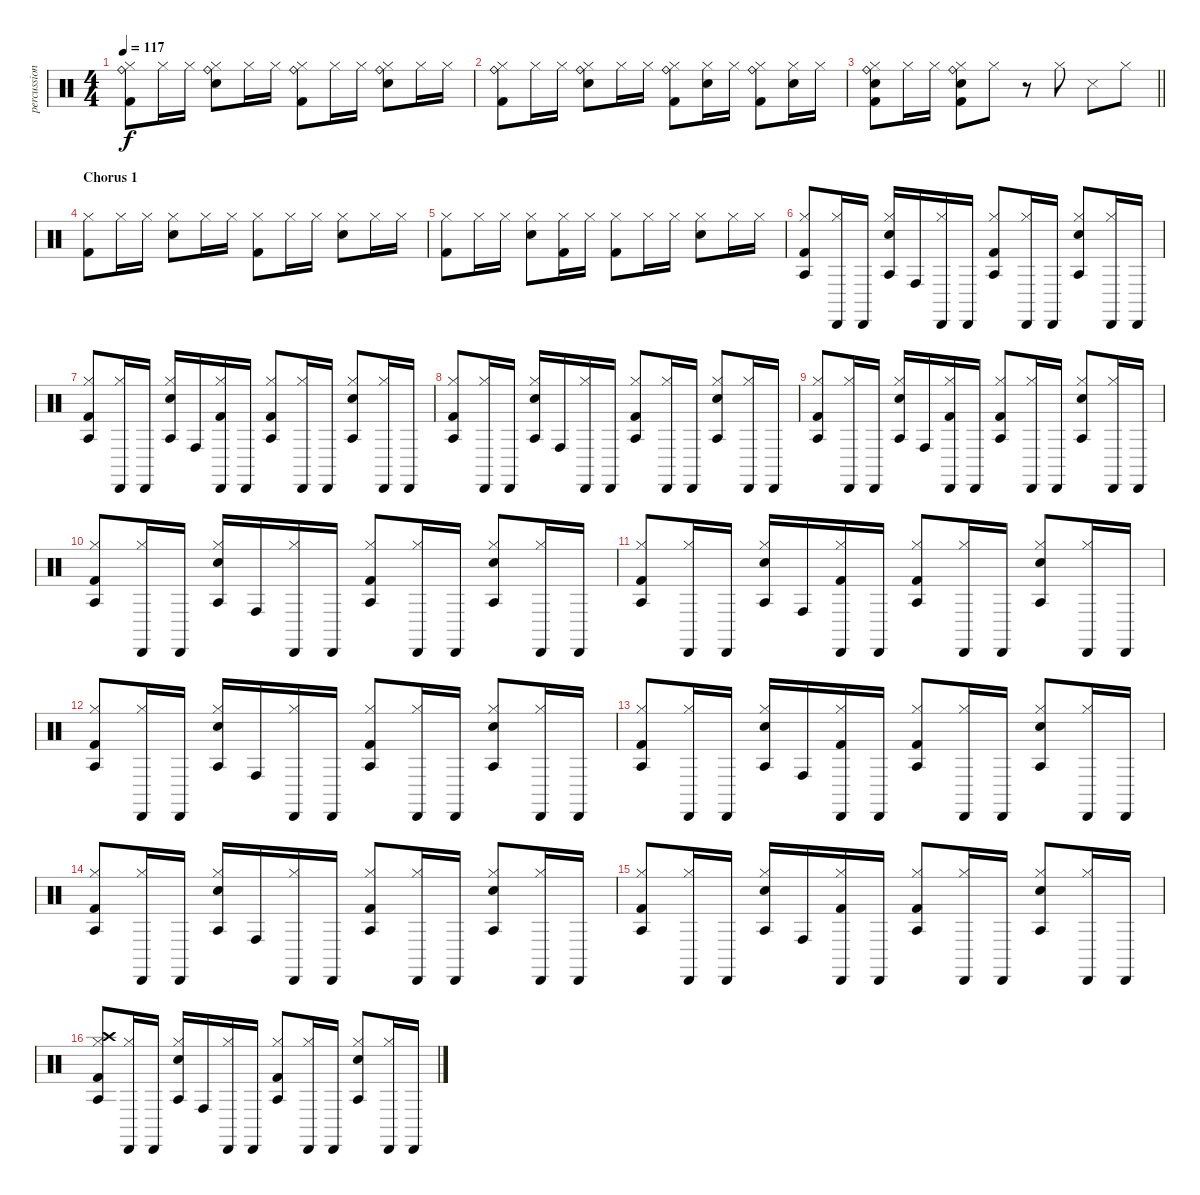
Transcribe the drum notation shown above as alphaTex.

\track ("percussion" "percussion") {instrument percussion}
\staff {score}
\articulation defaults
\ts (4 4)
\tempo 117
\clef neutral
\ks c
("Ride (bell)" "Hi-Hat (closed)" "Kick (hit) 2").8{dy f} "Hi-Hat (closed)".16 "Hi-Hat (closed)".16 ("Ride (bell)" "Snare (hit) 2" "Hi-Hat (closed)").8 "Hi-Hat (closed)".16 "Hi-Hat (closed)".16 ("Ride (bell)" "Hi-Hat (closed)" "Kick (hit) 2").8 "Hi-Hat (closed)".16 "Hi-Hat (closed)".16 ("Ride (bell)" "Snare (hit) 2" "Hi-Hat (closed)").8 "Hi-Hat (closed)".16 "Hi-Hat (closed)".16 |
("Ride (bell)" "Hi-Hat (closed)" "Kick (hit) 2").8 "Hi-Hat (closed)".16 "Hi-Hat (closed)".16 ("Ride (bell)" "Snare (hit) 2" "Hi-Hat (closed)").8 "Hi-Hat (closed)".16 "Hi-Hat (closed)".16 ("Ride (bell)" "Hi-Hat (closed)" "Kick (hit) 2").8 ("Snare (hit) 2" "Hi-Hat (closed)").16 "Hi-Hat (closed)".16 ("Ride (bell)" "Hi-Hat (closed)" "Kick (hit) 2").8 ("Snare (hit) 2" "Hi-Hat (closed)").16 "Hi-Hat (closed)".16 |
\barLineRight lightlight
("Ride (bell)" "Snare (hit) 2" "Hi-Hat (closed)" "Kick (hit) 2").8 "Hi-Hat (closed)".16 "Hi-Hat (closed)".16 ("Ride (bell)" "Snare (hit) 2" "Hi-Hat (closed)" "Kick (hit) 2").8 "Hi-Hat (closed)".8 r.8 "Hi-Hat (closed)".8 "Metronome (hit)".8 "Hi-Hat (closed)".8 |
\section ("" "Chorus 1")
("Hi-Hat (closed)" "Kick (hit) 2").8 "Hi-Hat (closed)".16 "Hi-Hat (closed)".16 ("Snare (hit) 2" "Hi-Hat (closed)").8 "Hi-Hat (closed)".16 "Hi-Hat (closed)".16 ("Hi-Hat (closed)" "Kick (hit) 2").8 "Hi-Hat (closed)".16 "Hi-Hat (closed)".16 ("Snare (hit) 2" "Hi-Hat (closed)").8 "Hi-Hat (closed)".16 "Hi-Hat (closed)".16 |
("Hi-Hat (closed)" "Kick (hit) 2").8 "Hi-Hat (closed)".16 "Hi-Hat (closed)".16 ("Snare (hit) 2" "Hi-Hat (closed)").8 ("Hi-Hat (closed)" "Kick (hit) 2").16 "Hi-Hat (closed)".16 ("Hi-Hat (closed)" "Kick (hit) 2").8 "Hi-Hat (closed)".16 "Hi-Hat (closed)".16 ("Snare (hit) 2" "Hi-Hat (closed)").8 "Hi-Hat (closed)".16 "Hi-Hat (closed)".16 |
("Agogo tow (hit)" "Hi-Hat (closed)" "Kick (hit) 2").8 ("Cabasa (hit)" "Hi-Hat (closed)").16 "Cabasa (hit)".16 ("Agogo tow (hit)" "Snare (hit) 2" "Hi-Hat (closed)").16 "Conga high (hit)".16 ("Cabasa (hit)" "Hi-Hat (closed)").16 "Cabasa (hit)".16 ("Agogo tow (hit)" "Hi-Hat (closed)" "Kick (hit) 2").8 ("Cabasa (hit)" "Hi-Hat (closed)").16 "Cabasa (hit)".16 ("Agogo tow (hit)" "Snare (hit) 2" "Hi-Hat (closed)").8 ("Cabasa (hit)" "Hi-Hat (closed)").16 "Cabasa (hit)".16 |
("Agogo tow (hit)" "Hi-Hat (closed)" "Kick (hit) 2").8 ("Cabasa (hit)" "Hi-Hat (closed)").16 "Cabasa (hit)".16 ("Agogo tow (hit)" "Snare (hit) 2" "Hi-Hat (closed)").16 "Conga high (hit)".16 ("Cabasa (hit)" "Hi-Hat (closed)" "Kick (hit) 2").16 "Cabasa (hit)".16 ("Agogo tow (hit)" "Hi-Hat (closed)" "Kick (hit) 2").8 ("Cabasa (hit)" "Hi-Hat (closed)").16 "Cabasa (hit)".16 ("Agogo tow (hit)" "Snare (hit) 2" "Hi-Hat (closed)").8 ("Cabasa (hit)" "Hi-Hat (closed)").16 "Cabasa (hit)".16 |
("Agogo tow (hit)" "Hi-Hat (closed)" "Kick (hit) 2").8 ("Cabasa (hit)" "Hi-Hat (closed)").16 "Cabasa (hit)".16 ("Agogo tow (hit)" "Snare (hit) 2" "Hi-Hat (closed)").16 "Conga high (hit)".16 ("Cabasa (hit)" "Hi-Hat (closed)").16 "Cabasa (hit)".16 ("Agogo tow (hit)" "Hi-Hat (closed)" "Kick (hit) 2").8 ("Cabasa (hit)" "Hi-Hat (closed)").16 "Cabasa (hit)".16 ("Agogo tow (hit)" "Snare (hit) 2" "Hi-Hat (closed)").8 ("Cabasa (hit)" "Hi-Hat (closed)").16 "Cabasa (hit)".16 |
("Agogo tow (hit)" "Hi-Hat (closed)" "Kick (hit) 2").8 ("Cabasa (hit)" "Hi-Hat (closed)").16 "Cabasa (hit)".16 ("Agogo tow (hit)" "Snare (hit) 2" "Hi-Hat (closed)").16 "Conga high (hit)".16 ("Cabasa (hit)" "Hi-Hat (closed)" "Kick (hit) 2").16 "Cabasa (hit)".16 ("Agogo tow (hit)" "Hi-Hat (closed)" "Kick (hit) 2").8 ("Cabasa (hit)" "Hi-Hat (closed)").16 "Cabasa (hit)".16 ("Agogo tow (hit)" "Snare (hit) 2" "Hi-Hat (closed)").8 ("Cabasa (hit)" "Hi-Hat (closed)").16 "Cabasa (hit)".16 |
("Agogo tow (hit)" "Hi-Hat (closed)" "Kick (hit) 2").8 ("Cabasa (hit)" "Hi-Hat (closed)").16 "Cabasa (hit)".16 ("Agogo tow (hit)" "Snare (hit) 2" "Hi-Hat (closed)").16 "Conga high (hit)".16 ("Cabasa (hit)" "Hi-Hat (closed)").16 "Cabasa (hit)".16 ("Agogo tow (hit)" "Hi-Hat (closed)" "Kick (hit) 2").8 ("Cabasa (hit)" "Hi-Hat (closed)").16 "Cabasa (hit)".16 ("Agogo tow (hit)" "Snare (hit) 2" "Hi-Hat (closed)").8 ("Cabasa (hit)" "Hi-Hat (closed)").16 "Cabasa (hit)".16 |
("Agogo tow (hit)" "Hi-Hat (closed)" "Kick (hit) 2").8 ("Cabasa (hit)" "Hi-Hat (closed)").16 "Cabasa (hit)".16 ("Agogo tow (hit)" "Snare (hit) 2" "Hi-Hat (closed)").16 "Conga high (hit)".16 ("Cabasa (hit)" "Hi-Hat (closed)" "Kick (hit) 2").16 "Cabasa (hit)".16 ("Agogo tow (hit)" "Hi-Hat (closed)" "Kick (hit) 2").8 ("Cabasa (hit)" "Hi-Hat (closed)").16 "Cabasa (hit)".16 ("Agogo tow (hit)" "Snare (hit) 2" "Hi-Hat (closed)").8 ("Cabasa (hit)" "Hi-Hat (closed)").16 "Cabasa (hit)".16 |
("Agogo tow (hit)" "Hi-Hat (closed)" "Kick (hit) 2").8 ("Cabasa (hit)" "Hi-Hat (closed)").16 "Cabasa (hit)".16 ("Agogo tow (hit)" "Snare (hit) 2" "Hi-Hat (closed)").16 "Conga high (hit)".16 ("Cabasa (hit)" "Hi-Hat (closed)").16 "Cabasa (hit)".16 ("Agogo tow (hit)" "Hi-Hat (closed)" "Kick (hit) 2").8 ("Cabasa (hit)" "Hi-Hat (closed)").16 "Cabasa (hit)".16 ("Agogo tow (hit)" "Snare (hit) 2" "Hi-Hat (closed)").8 ("Cabasa (hit)" "Hi-Hat (closed)").16 "Cabasa (hit)".16 |
("Agogo tow (hit)" "Hi-Hat (closed)" "Kick (hit) 2").8 ("Cabasa (hit)" "Hi-Hat (closed)").16 "Cabasa (hit)".16 ("Agogo tow (hit)" "Snare (hit) 2" "Hi-Hat (closed)").16 "Conga high (hit)".16 ("Cabasa (hit)" "Hi-Hat (closed)" "Kick (hit) 2").16 "Cabasa (hit)".16 ("Agogo tow (hit)" "Hi-Hat (closed)" "Kick (hit) 2").8 ("Cabasa (hit)" "Hi-Hat (closed)").16 "Cabasa (hit)".16 ("Agogo tow (hit)" "Snare (hit) 2" "Hi-Hat (closed)").8 ("Cabasa (hit)" "Hi-Hat (closed)").16 "Cabasa (hit)".16 |
("Agogo tow (hit)" "Hi-Hat (closed)" "Kick (hit) 2").8 ("Cabasa (hit)" "Hi-Hat (closed)").16 "Cabasa (hit)".16 ("Agogo tow (hit)" "Snare (hit) 2" "Hi-Hat (closed)").16 "Conga high (hit)".16 ("Cabasa (hit)" "Hi-Hat (closed)").16 "Cabasa (hit)".16 ("Agogo tow (hit)" "Hi-Hat (closed)" "Kick (hit) 2").8 ("Cabasa (hit)" "Hi-Hat (closed)").16 "Cabasa (hit)".16 ("Agogo tow (hit)" "Snare (hit) 2" "Hi-Hat (closed)").8 ("Cabasa (hit)" "Hi-Hat (closed)").16 "Cabasa (hit)".16 |
("Agogo tow (hit)" "Hi-Hat (closed)" "Kick (hit) 2").8 ("Cabasa (hit)" "Hi-Hat (closed)").16 "Cabasa (hit)".16 ("Agogo tow (hit)" "Snare (hit) 2" "Hi-Hat (closed)").16 "Conga high (hit)".16 ("Cabasa (hit)" "Hi-Hat (closed)" "Kick (hit) 2").16 "Cabasa (hit)".16 ("Agogo tow (hit)" "Hi-Hat (closed)" "Kick (hit) 2").8 ("Cabasa (hit)" "Hi-Hat (closed)").16 "Cabasa (hit)".16 ("Agogo tow (hit)" "Snare (hit) 2" "Hi-Hat (closed)").8 ("Cabasa (hit)" "Hi-Hat (closed)").16 "Cabasa (hit)".16 |
("Crash high (hit)" "Agogo tow (hit)" "Hi-Hat (closed)" "Kick (hit) 2").8 ("Cabasa (hit)" "Hi-Hat (closed)").16 "Cabasa (hit)".16 ("Agogo tow (hit)" "Snare (hit) 2" "Hi-Hat (closed)").16 "Conga high (hit)".16 ("Cabasa (hit)" "Hi-Hat (closed)").16 "Cabasa (hit)".16 ("Agogo tow (hit)" "Hi-Hat (closed)" "Kick (hit) 2").8 ("Cabasa (hit)" "Hi-Hat (closed)").16 "Cabasa (hit)".16 ("Agogo tow (hit)" "Snare (hit) 2" "Hi-Hat (closed)").8 ("Cabasa (hit)" "Hi-Hat (closed)").16 "Cabasa (hit)".16
